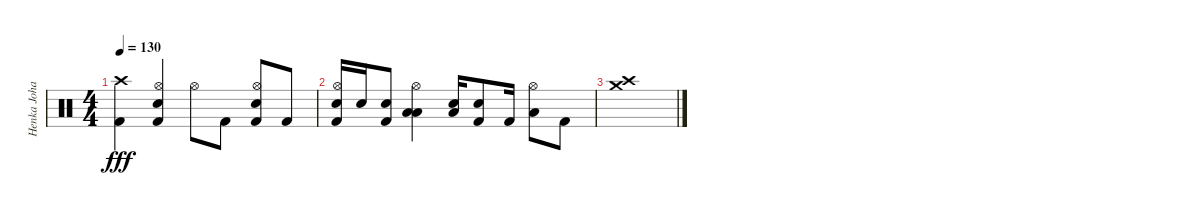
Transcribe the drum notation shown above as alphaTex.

\track ("Henka Johansson" "Henka Joha") {instrument percussion}
\staff {score}
\articulation defaults
\ts (4 4)
\tempo 130
\clef neutral
\ks c
("Crash high (hit)" "Kick (hit) 2").4{dy fff} ("Hi-Hat (open)" "Electric Snare (hit)" "Kick (hit) 2").4 "Hi-Hat (open)".8 "Kick (hit) 2".8 ("Hi-Hat (open)" "Electric Snare (hit)" "Kick (hit) 2").8 "Kick (hit) 2".8 |
("Hi-Hat (open)" "Electric Snare (hit)" "Kick (hit) 2").16 "Electric Snare (hit)".16 ("Electric Snare (hit)" "Kick (hit) 2").8 ("Hi-Hat (open)" "Low Tom (hit)" "Low Tom (hit)").4 ("Electric Snare (hit)" "Low Tom (hit)").16 ("Electric Snare (hit)" "Kick (hit) 2").8 "Kick (hit) 2".16 ("Hi-Hat (open)" "Low Tom (hit)").8 "Kick (hit) 2".8 |
("Crash high (hit)" "Crash medium (hit)").1
